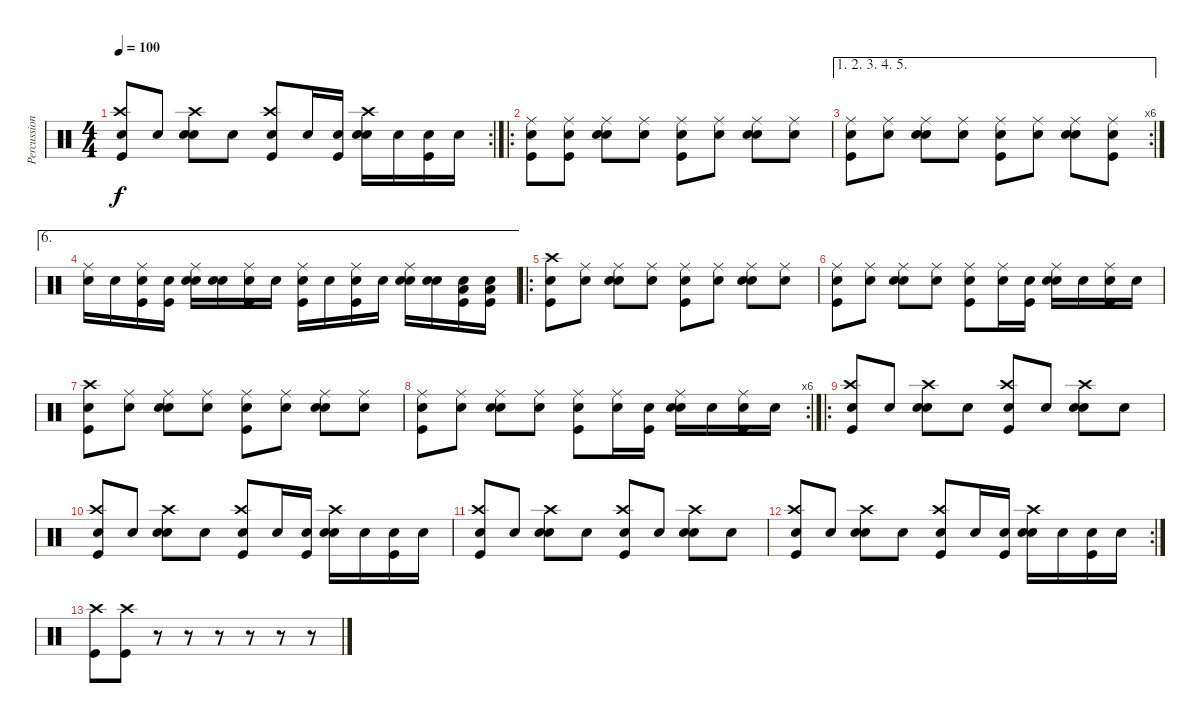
\track ("Percussion" "Percussion") {instrument percussion}
\staff {score}
\articulation defaults
\rc 2
\ts (4 4)
\tempo 100
\clef neutral
\ks c
("Snare (hit)" "Crash high (hit)" "Kick (hit)").8{dy f} "Snare (hit)".8 ("Snare (hit)" "Crash high (hit)" "Snare (hit) 2").8 "Snare (hit)".8 ("Snare (hit)" "Crash high (hit)" "Kick (hit)").8 "Snare (hit)".16 ("Snare (hit)" "Kick (hit)").16 ("Snare (hit)" "Crash high (hit)" "Snare (hit) 2").16 "Snare (hit)".16 ("Snare (hit)" "Kick (hit)").16 "Snare (hit)".16 |
\ro
("Snare (hit)" "Ride (middle)" "Kick (hit)").8 ("Snare (hit)" "Ride (middle)" "Kick (hit)").8 ("Snare (hit)" "Ride (middle)" "Snare (hit) 2").8 ("Snare (hit)" "Ride (middle)").8 ("Snare (hit)" "Ride (middle)" "Kick (hit)").8 ("Snare (hit)" "Ride (middle)").8 ("Snare (hit)" "Ride (middle)" "Snare (hit) 2").8 ("Snare (hit)" "Ride (middle)").8 |
\ae (1 2 3 4 5)
\rc 6
("Snare (hit)" "Ride (middle)" "Kick (hit)").8 ("Snare (hit)" "Ride (middle)").8 ("Snare (hit)" "Ride (middle)" "Snare (hit) 2").8 ("Snare (hit)" "Ride (middle)").8 ("Snare (hit)" "Ride (middle)" "Kick (hit)").8 ("Snare (hit)" "Ride (middle)").8 ("Snare (hit)" "Ride (middle)" "Snare (hit) 2").8 ("Snare (hit)" "Ride (middle)" "Kick (hit)").8 |
\ae 6
("Snare (hit)" "Ride (middle)").16 "Snare (hit)".16 ("Snare (hit)" "Ride (middle)" "Kick (hit)").16 ("Snare (hit)" "Kick (hit)").16 ("Snare (hit)" "Ride (middle)" "Snare (hit) 2").16 ("Snare (hit)" "Snare (hit) 2").16 ("Snare (hit)" "Ride (middle)" "Kick (hit)").16 "Snare (hit)".16 ("Snare (hit)" "Ride (middle)" "Kick (hit)").16 "Snare (hit)".16 ("Snare (hit)" "Ride (middle)" "Kick (hit)").16 "Snare (hit)".16 ("Snare (hit)" "Ride (middle)" "Snare (hit) 2").16 ("Snare (hit)" "Snare (hit) 2").16 ("Snare (hit)" "Low Floor Tom (hit)" "Kick (hit)").16 ("Snare (hit)" "Low Floor Tom (hit)" "Kick (hit)").16 |
\ro
("Snare (hit)" "Crash high (hit)" "Kick (hit)").8 ("Snare (hit)" "Ride (middle)").8 ("Snare (hit)" "Ride (middle)" "Snare (hit) 2").8 ("Snare (hit)" "Ride (middle)").8 ("Snare (hit)" "Ride (middle)" "Kick (hit)").8 ("Snare (hit)" "Ride (middle)").8 ("Snare (hit)" "Ride (middle)" "Snare (hit) 2").8 ("Snare (hit)" "Ride (middle)").8 |
("Snare (hit)" "Ride (middle)" "Kick (hit)").8 ("Snare (hit)" "Ride (middle)").8 ("Snare (hit)" "Ride (middle)" "Snare (hit) 2").8 ("Snare (hit)" "Ride (middle)").8 ("Snare (hit)" "Ride (middle)" "Kick (hit)").8 ("Snare (hit)" "Ride (middle)").16 ("Snare (hit)" "Kick (hit)").16 ("Snare (hit)" "Ride (middle)" "Snare (hit) 2").16 "Snare (hit)".16 ("Snare (hit)" "Ride (middle)" "Kick (hit)").16 "Snare (hit)".16 |
("Snare (hit)" "Crash high (hit)" "Kick (hit)").8 ("Snare (hit)" "Ride (middle)").8 ("Snare (hit)" "Ride (middle)" "Snare (hit) 2").8 ("Snare (hit)" "Ride (middle)").8 ("Snare (hit)" "Ride (middle)" "Kick (hit)").8 ("Snare (hit)" "Ride (middle)").8 ("Snare (hit)" "Ride (middle)" "Snare (hit) 2").8 ("Snare (hit)" "Ride (middle)").8 |
\rc 6
("Snare (hit)" "Ride (middle)" "Kick (hit)").8 ("Snare (hit)" "Ride (middle)").8 ("Snare (hit)" "Ride (middle)" "Snare (hit) 2").8 ("Snare (hit)" "Ride (middle)").8 ("Snare (hit)" "Ride (middle)" "Kick (hit)").8 ("Snare (hit)" "Ride (middle)").16 ("Snare (hit)" "Kick (hit)").16 ("Snare (hit)" "Ride (middle)" "Snare (hit) 2").16 "Snare (hit)".16 ("Snare (hit)" "Ride (middle)" "Kick (hit)").16 "Snare (hit)".16 |
\ro
("Snare (hit)" "Crash high (hit)" "Kick (hit)").8 "Snare (hit)".8 ("Snare (hit)" "Crash high (hit)" "Snare (hit) 2").8 "Snare (hit)".8 ("Snare (hit)" "Crash high (hit)" "Kick (hit)").8 "Snare (hit)".8 ("Snare (hit)" "Crash high (hit)" "Snare (hit) 2").8 "Snare (hit)".8 |
("Snare (hit)" "Crash high (hit)" "Kick (hit)").8 "Snare (hit)".8 ("Snare (hit)" "Crash high (hit)" "Snare (hit) 2").8 "Snare (hit)".8 ("Snare (hit)" "Crash high (hit)" "Kick (hit)").8 "Snare (hit)".16 ("Snare (hit)" "Kick (hit)").16 ("Snare (hit)" "Crash high (hit)" "Snare (hit) 2").16 "Snare (hit)".16 ("Snare (hit)" "Kick (hit)").16 "Snare (hit)".16 |
("Snare (hit)" "Crash high (hit)" "Kick (hit)").8 "Snare (hit)".8 ("Snare (hit)" "Crash high (hit)" "Snare (hit) 2").8 "Snare (hit)".8 ("Snare (hit)" "Crash high (hit)" "Kick (hit)").8 "Snare (hit)".8 ("Snare (hit)" "Crash high (hit)" "Snare (hit) 2").8 "Snare (hit)".8 |
\rc 2
("Snare (hit)" "Crash high (hit)" "Kick (hit)").8 "Snare (hit)".8 ("Snare (hit)" "Crash high (hit)" "Snare (hit) 2").8 "Snare (hit)".8 ("Snare (hit)" "Crash high (hit)" "Kick (hit)").8 "Snare (hit)".16 ("Snare (hit)" "Kick (hit)").16 ("Snare (hit)" "Crash high (hit)" "Snare (hit) 2").16 "Snare (hit)".16 ("Snare (hit)" "Kick (hit)").16 "Snare (hit)".16 |
("Crash high (hit)" "Kick (hit)").8 ("Crash high (hit)" "Kick (hit)").8 r.8 r.8 r.8 r.8 r.8 r.8
